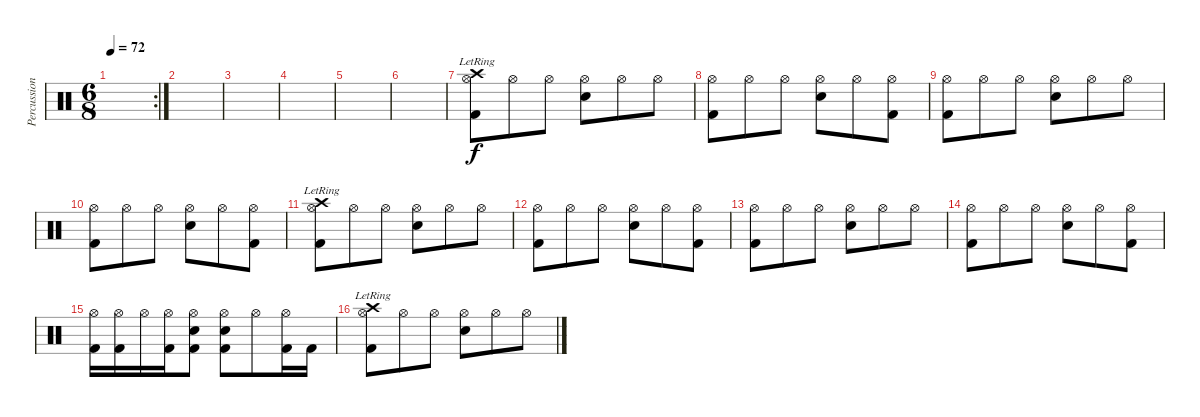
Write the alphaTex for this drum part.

\track ("Percussioni" "Percussion") {instrument percussion}
\staff {score}
\articulation defaults
\rc 2
\ts (6 8)
\tempo 72
\clef neutral
\ks c
|
|
|
|
|
|
("Hi-Hat (open)" "Crash high (hit)"{lr} "Kick (hit) 2").8 "Hi-Hat (open)".8 "Hi-Hat (open)".8 ("Hi-Hat (open)" "Electric Snare (hit)").8 "Hi-Hat (open)".8 "Hi-Hat (open)".8 |
("Hi-Hat (open)" "Kick (hit) 2").8 "Hi-Hat (open)".8 "Hi-Hat (open)".8 ("Hi-Hat (open)" "Electric Snare (hit)").8 "Hi-Hat (open)".8 ("Hi-Hat (open)" "Kick (hit) 2").8 |
("Hi-Hat (open)" "Kick (hit) 2").8 "Hi-Hat (open)".8 "Hi-Hat (open)".8 ("Hi-Hat (open)" "Electric Snare (hit)").8 "Hi-Hat (open)".8 "Hi-Hat (open)".8 |
("Hi-Hat (open)" "Kick (hit) 2").8 "Hi-Hat (open)".8 "Hi-Hat (open)".8 ("Hi-Hat (open)" "Electric Snare (hit)").8 "Hi-Hat (open)".8 ("Hi-Hat (open)" "Kick (hit) 2").8 |
("Hi-Hat (open)" "Crash high (hit)"{lr} "Kick (hit) 2").8 "Hi-Hat (open)".8 "Hi-Hat (open)".8 ("Hi-Hat (open)" "Electric Snare (hit)").8 "Hi-Hat (open)".8 "Hi-Hat (open)".8 |
("Hi-Hat (open)" "Kick (hit) 2").8 "Hi-Hat (open)".8 "Hi-Hat (open)".8 ("Hi-Hat (open)" "Electric Snare (hit)").8 "Hi-Hat (open)".8 ("Hi-Hat (open)" "Kick (hit) 2").8 |
("Hi-Hat (open)" "Kick (hit) 2").8 "Hi-Hat (open)".8 "Hi-Hat (open)".8 ("Hi-Hat (open)" "Electric Snare (hit)").8 "Hi-Hat (open)".8 "Hi-Hat (open)".8 |
("Hi-Hat (open)" "Kick (hit) 2").8 "Hi-Hat (open)".8 "Hi-Hat (open)".8 ("Hi-Hat (open)" "Electric Snare (hit)").8 "Hi-Hat (open)".8 ("Hi-Hat (open)" "Kick (hit) 2").8 |
("Hi-Hat (open)" "Kick (hit) 2").16 ("Hi-Hat (open)" "Kick (hit) 2").16 "Hi-Hat (open)".16 ("Hi-Hat (open)" "Kick (hit) 2").16 ("Hi-Hat (open)" "Electric Snare (hit)" "Kick (hit) 2").8 ("Hi-Hat (open)" "Electric Snare (hit)" "Kick (hit) 2").8 "Hi-Hat (open)".8 ("Hi-Hat (open)" "Kick (hit) 2").16 "Kick (hit) 2".16 |
("Hi-Hat (open)" "Crash high (hit)"{lr} "Kick (hit) 2").8 "Hi-Hat (open)".8 "Hi-Hat (open)".8 ("Hi-Hat (open)" "Electric Snare (hit)").8 "Hi-Hat (open)".8 "Hi-Hat (open)".8
